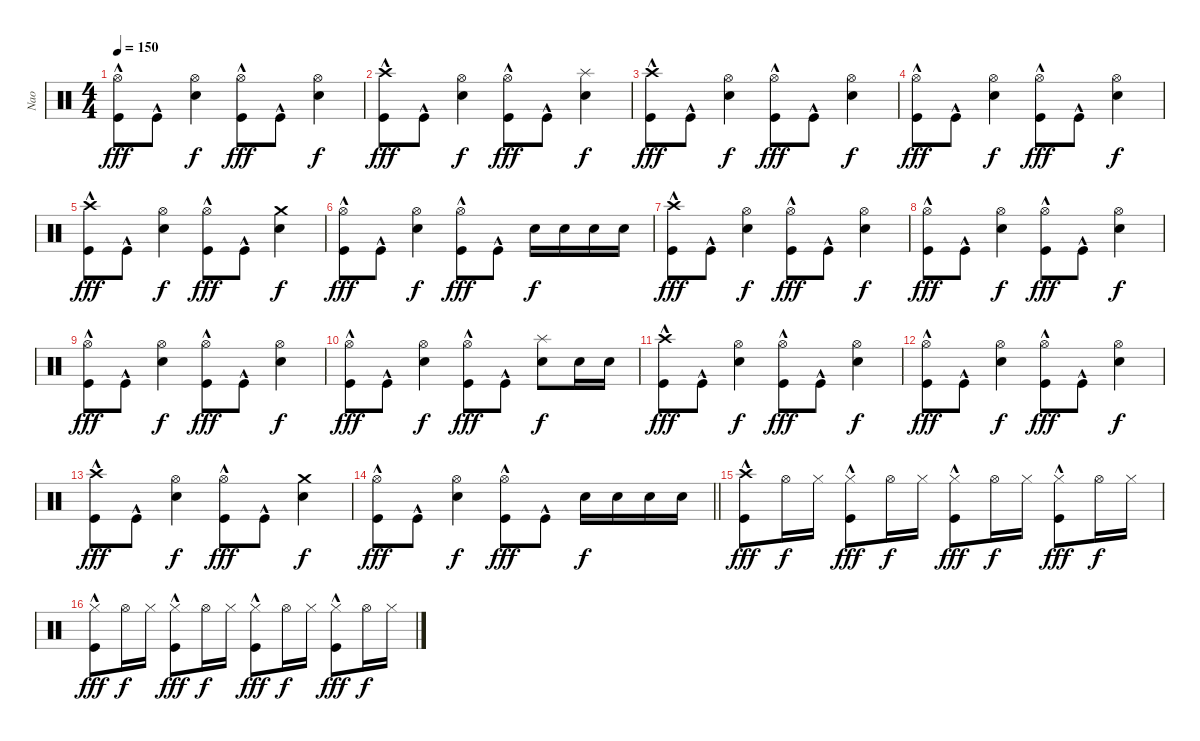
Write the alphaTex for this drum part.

\track ("Nao" "Nao") {instrument percussion}
\staff {score}
\articulation defaults
\ts (4 4)
\tempo 150
\clef neutral
\ks c
("Hi-Hat (open)" "Kick (hit)"{hac}).8{dy fff} "Kick (hit)"{hac}.8 ("Hi-Hat (open)" "Electric Snare (hit)").4{dy f} ("Hi-Hat (open)" "Kick (hit)"{hac}).8{dy fff} "Kick (hit)"{hac}.8 ("Hi-Hat (open)" "Electric Snare (hit)").4{dy f} |
("Crash high (hit)" "Kick (hit)"{hac}).8{dy fff} "Kick (hit)"{hac}.8 ("Hi-Hat (open)" "Electric Snare (hit)").4{dy f} ("Hi-Hat (open)" "Kick (hit)"{hac}).8{dy fff} "Kick (hit)"{hac}.8 ("Splash (hit)" "Electric Snare (hit)").4{dy f} |
("Crash high (hit)" "Kick (hit)"{hac}).8{dy fff} "Kick (hit)"{hac}.8 ("Hi-Hat (open)" "Electric Snare (hit)").4{dy f} ("Hi-Hat (open)" "Kick (hit)"{hac}).8{dy fff} "Kick (hit)"{hac}.8 ("Hi-Hat (open)" "Electric Snare (hit)").4{dy f} |
("Hi-Hat (open)" "Kick (hit)"{hac}).8{dy fff} "Kick (hit)"{hac}.8 ("Hi-Hat (open)" "Electric Snare (hit)").4{dy f} ("Hi-Hat (open)" "Kick (hit)"{hac}).8{dy fff} "Kick (hit)"{hac}.8 ("Hi-Hat (open)" "Electric Snare (hit)").4{dy f} |
("Crash high (hit)" "Kick (hit)"{hac}).8{dy fff} "Kick (hit)"{hac}.8 ("Hi-Hat (open)" "Electric Snare (hit)").4{dy f} ("Hi-Hat (open)" "Kick (hit)"{hac}).8{dy fff} "Kick (hit)"{hac}.8 ("Crash medium (hit)" "Electric Snare (hit)").4{dy f} |
("Hi-Hat (open)" "Kick (hit)"{hac}).8{dy fff} "Kick (hit)"{hac}.8 ("Hi-Hat (open)" "Electric Snare (hit)").4{dy f} ("Hi-Hat (open)" "Kick (hit)"{hac}).8{dy fff} "Kick (hit)"{hac}.8 "Electric Snare (hit)".16{dy f} "Electric Snare (hit)".16 "Electric Snare (hit)".16 "Electric Snare (hit)".16 |
("Crash high (hit)" "Kick (hit)"{hac}).8{dy fff} "Kick (hit)"{hac}.8 ("Hi-Hat (open)" "Electric Snare (hit)").4{dy f} ("Hi-Hat (open)" "Kick (hit)"{hac}).8{dy fff} "Kick (hit)"{hac}.8 ("Hi-Hat (open)" "Electric Snare (hit)").4{dy f} |
("Hi-Hat (open)" "Kick (hit)"{hac}).8{dy fff} "Kick (hit)"{hac}.8 ("Hi-Hat (open)" "Electric Snare (hit)").4{dy f} ("Hi-Hat (open)" "Kick (hit)"{hac}).8{dy fff} "Kick (hit)"{hac}.8 ("Hi-Hat (open)" "Electric Snare (hit)").4{dy f} |
("Hi-Hat (open)" "Kick (hit)"{hac}).8{dy fff} "Kick (hit)"{hac}.8 ("Hi-Hat (open)" "Electric Snare (hit)").4{dy f} ("Hi-Hat (open)" "Kick (hit)"{hac}).8{dy fff} "Kick (hit)"{hac}.8 ("Hi-Hat (open)" "Electric Snare (hit)").4{dy f} |
("Hi-Hat (open)" "Kick (hit)"{hac}).8{dy fff} "Kick (hit)"{hac}.8 ("Hi-Hat (open)" "Electric Snare (hit)").4{dy f} ("Hi-Hat (open)" "Kick (hit)"{hac}).8{dy fff} "Kick (hit)"{hac}.8 ("Splash (hit)" "Electric Snare (hit)").8{dy f} "Electric Snare (hit)".16 "Electric Snare (hit)".16 |
("Crash high (hit)" "Kick (hit)"{hac}).8{dy fff} "Kick (hit)"{hac}.8 ("Hi-Hat (open)" "Electric Snare (hit)").4{dy f} ("Hi-Hat (open)" "Kick (hit)"{hac}).8{dy fff} "Kick (hit)"{hac}.8 ("Hi-Hat (open)" "Electric Snare (hit)").4{dy f} |
("Hi-Hat (open)" "Kick (hit)"{hac}).8{dy fff} "Kick (hit)"{hac}.8 ("Hi-Hat (open)" "Electric Snare (hit)").4{dy f} ("Hi-Hat (open)" "Kick (hit)"{hac}).8{dy fff} "Kick (hit)"{hac}.8 ("Hi-Hat (open)" "Electric Snare (hit)").4{dy f} |
("Crash high (hit)" "Kick (hit)"{hac}).8{dy fff} "Kick (hit)"{hac}.8 ("Hi-Hat (open)" "Electric Snare (hit)").4{dy f} ("Hi-Hat (open)" "Kick (hit)"{hac}).8{dy fff} "Kick (hit)"{hac}.8 ("Crash medium (hit)" "Electric Snare (hit)").4{dy f} |
\barLineRight lightlight
("Hi-Hat (open)" "Kick (hit)"{hac}).8{dy fff} "Kick (hit)"{hac}.8 ("Hi-Hat (open)" "Electric Snare (hit)").4{dy f} ("Hi-Hat (open)" "Kick (hit)"{hac}).8{dy fff} "Kick (hit)"{hac}.8 "Electric Snare (hit)".16{dy f} "Electric Snare (hit)".16 "Electric Snare (hit)".16 "Electric Snare (hit)".16 |
\section ("" "")
("Crash high (hit)" "Kick (hit)"{hac}).8{dy fff} "Hi-Hat (open)".16{dy f} "Hi-Hat (closed)".16 ("Hi-Hat (closed)" "Kick (hit)"{hac}).8{dy fff} "Hi-Hat (open)".16{dy f} "Hi-Hat (closed)".16 ("Hi-Hat (closed)" "Kick (hit)"{hac}).8{dy fff} "Hi-Hat (open)".16{dy f} "Hi-Hat (closed)".16 ("Hi-Hat (closed)" "Kick (hit)"{hac}).8{dy fff} "Hi-Hat (open)".16{dy f} "Hi-Hat (closed)".16 |
("Hi-Hat (closed)" "Kick (hit)"{hac}).8{dy fff} "Hi-Hat (open)".16{dy f} "Hi-Hat (closed)".16 ("Hi-Hat (closed)" "Kick (hit)"{hac}).8{dy fff} "Hi-Hat (open)".16{dy f} "Hi-Hat (closed)".16 ("Hi-Hat (closed)" "Kick (hit)"{hac}).8{dy fff} "Hi-Hat (open)".16{dy f} "Hi-Hat (closed)".16 ("Hi-Hat (closed)" "Kick (hit)"{hac}).8{dy fff} "Hi-Hat (open)".16{dy f} "Hi-Hat (closed)".16
